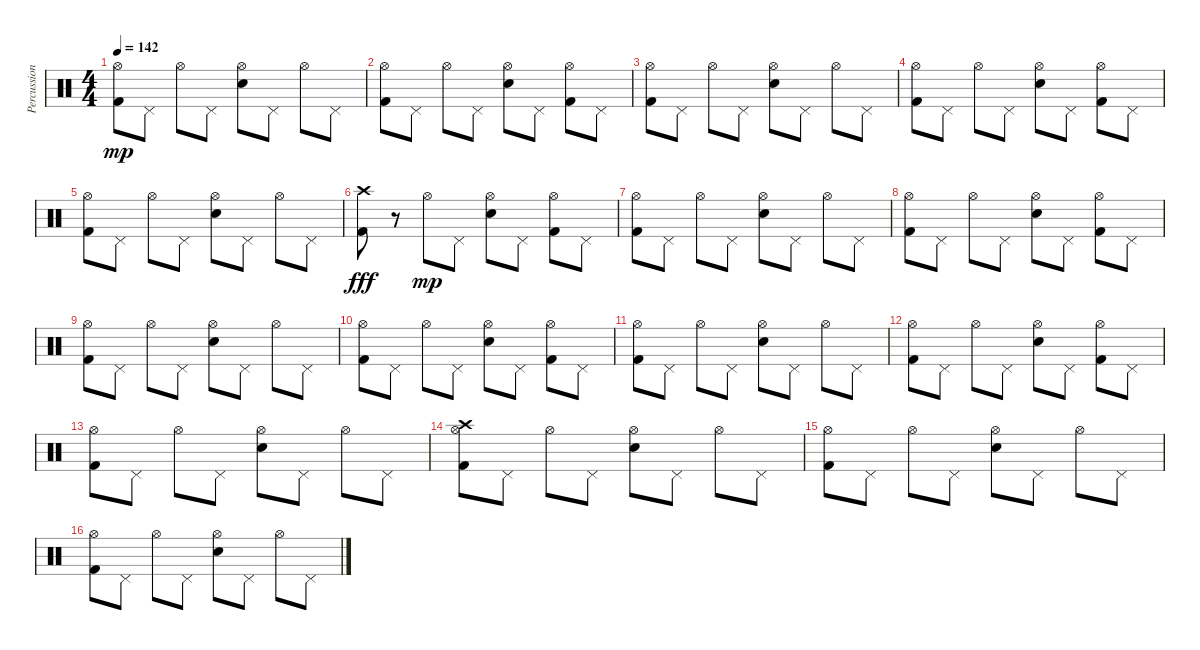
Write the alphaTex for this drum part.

\track ("Percussion" "Percussion") {instrument percussion}
\staff {score}
\articulation defaults
\ts (4 4)
\tempo 142
\clef neutral
\ks c
("Kick (hit) 2" "Hi-Hat (open)").8{dy mp} "Pedal Hi-Hat (hit)".8 "Hi-Hat (open)".8 "Pedal Hi-Hat (hit)".8 ("Electric Snare (hit)" "Hi-Hat (open)").8 "Pedal Hi-Hat (hit)".8 "Hi-Hat (open)".8 "Pedal Hi-Hat (hit)".8 |
("Kick (hit) 2" "Hi-Hat (open)").8 "Pedal Hi-Hat (hit)".8 "Hi-Hat (open)".8 "Pedal Hi-Hat (hit)".8 ("Electric Snare (hit)" "Hi-Hat (open)").8 "Pedal Hi-Hat (hit)".8 ("Kick (hit) 2" "Hi-Hat (open)").8 "Pedal Hi-Hat (hit)".8 |
("Kick (hit) 2" "Hi-Hat (open)").8 "Pedal Hi-Hat (hit)".8 "Hi-Hat (open)".8 "Pedal Hi-Hat (hit)".8 ("Electric Snare (hit)" "Hi-Hat (open)").8 "Pedal Hi-Hat (hit)".8 "Hi-Hat (open)".8 "Pedal Hi-Hat (hit)".8 |
("Kick (hit) 2" "Hi-Hat (open)").8 "Pedal Hi-Hat (hit)".8 "Hi-Hat (open)".8 "Pedal Hi-Hat (hit)".8 ("Electric Snare (hit)" "Hi-Hat (open)").8 "Pedal Hi-Hat (hit)".8 ("Kick (hit) 2" "Hi-Hat (open)").8 "Pedal Hi-Hat (hit)".8 |
("Kick (hit) 2" "Hi-Hat (open)").8 "Pedal Hi-Hat (hit)".8 "Hi-Hat (open)".8 "Pedal Hi-Hat (hit)".8 ("Electric Snare (hit)" "Hi-Hat (open)").8 "Pedal Hi-Hat (hit)".8 "Hi-Hat (open)".8 "Pedal Hi-Hat (hit)".8 |
("Kick (hit) 2" "Crash high (hit)").8{dy fff} r.8 "Hi-Hat (open)".8{dy mp} "Pedal Hi-Hat (hit)".8 ("Electric Snare (hit)" "Hi-Hat (open)").8 "Pedal Hi-Hat (hit)".8 ("Kick (hit) 2" "Hi-Hat (open)").8 "Pedal Hi-Hat (hit)".8 |
("Kick (hit) 2" "Hi-Hat (open)").8 "Pedal Hi-Hat (hit)".8 "Hi-Hat (open)".8 "Pedal Hi-Hat (hit)".8 ("Electric Snare (hit)" "Hi-Hat (open)").8 "Pedal Hi-Hat (hit)".8 "Hi-Hat (open)".8 "Pedal Hi-Hat (hit)".8 |
("Kick (hit) 2" "Hi-Hat (open)").8 "Pedal Hi-Hat (hit)".8 "Hi-Hat (open)".8 "Pedal Hi-Hat (hit)".8 ("Electric Snare (hit)" "Hi-Hat (open)").8 "Pedal Hi-Hat (hit)".8 ("Kick (hit) 2" "Hi-Hat (open)").8 "Pedal Hi-Hat (hit)".8 |
("Kick (hit) 2" "Hi-Hat (open)").8 "Pedal Hi-Hat (hit)".8 "Hi-Hat (open)".8 "Pedal Hi-Hat (hit)".8 ("Electric Snare (hit)" "Hi-Hat (open)").8 "Pedal Hi-Hat (hit)".8 "Hi-Hat (open)".8 "Pedal Hi-Hat (hit)".8 |
("Kick (hit) 2" "Hi-Hat (open)").8 "Pedal Hi-Hat (hit)".8 "Hi-Hat (open)".8 "Pedal Hi-Hat (hit)".8 ("Electric Snare (hit)" "Hi-Hat (open)").8 "Pedal Hi-Hat (hit)".8 ("Kick (hit) 2" "Hi-Hat (open)").8 "Pedal Hi-Hat (hit)".8 |
("Kick (hit) 2" "Hi-Hat (open)").8 "Pedal Hi-Hat (hit)".8 "Hi-Hat (open)".8 "Pedal Hi-Hat (hit)".8 ("Electric Snare (hit)" "Hi-Hat (open)").8 "Pedal Hi-Hat (hit)".8 "Hi-Hat (open)".8 "Pedal Hi-Hat (hit)".8 |
("Kick (hit) 2" "Hi-Hat (open)").8 "Pedal Hi-Hat (hit)".8 "Hi-Hat (open)".8 "Pedal Hi-Hat (hit)".8 ("Electric Snare (hit)" "Hi-Hat (open)").8 "Pedal Hi-Hat (hit)".8 ("Kick (hit) 2" "Hi-Hat (open)").8 "Pedal Hi-Hat (hit)".8 |
("Kick (hit) 2" "Hi-Hat (open)").8 "Pedal Hi-Hat (hit)".8 "Hi-Hat (open)".8 "Pedal Hi-Hat (hit)".8 ("Electric Snare (hit)" "Hi-Hat (open)").8 "Pedal Hi-Hat (hit)".8 "Hi-Hat (open)".8 "Pedal Hi-Hat (hit)".8 |
("Kick (hit) 2" "Hi-Hat (open)" "Crash high (hit)").8 "Pedal Hi-Hat (hit)".8 "Hi-Hat (open)".8 "Pedal Hi-Hat (hit)".8 ("Electric Snare (hit)" "Hi-Hat (open)").8 "Pedal Hi-Hat (hit)".8 "Hi-Hat (open)".8 "Pedal Hi-Hat (hit)".8 |
("Kick (hit) 2" "Hi-Hat (open)").8 "Pedal Hi-Hat (hit)".8 "Hi-Hat (open)".8 "Pedal Hi-Hat (hit)".8 ("Electric Snare (hit)" "Hi-Hat (open)").8 "Pedal Hi-Hat (hit)".8 "Hi-Hat (open)".8 "Pedal Hi-Hat (hit)".8 |
("Kick (hit) 2" "Hi-Hat (open)").8 "Pedal Hi-Hat (hit)".8 "Hi-Hat (open)".8 "Pedal Hi-Hat (hit)".8 ("Electric Snare (hit)" "Hi-Hat (open)").8 "Pedal Hi-Hat (hit)".8 "Hi-Hat (open)".8 "Pedal Hi-Hat (hit)".8
